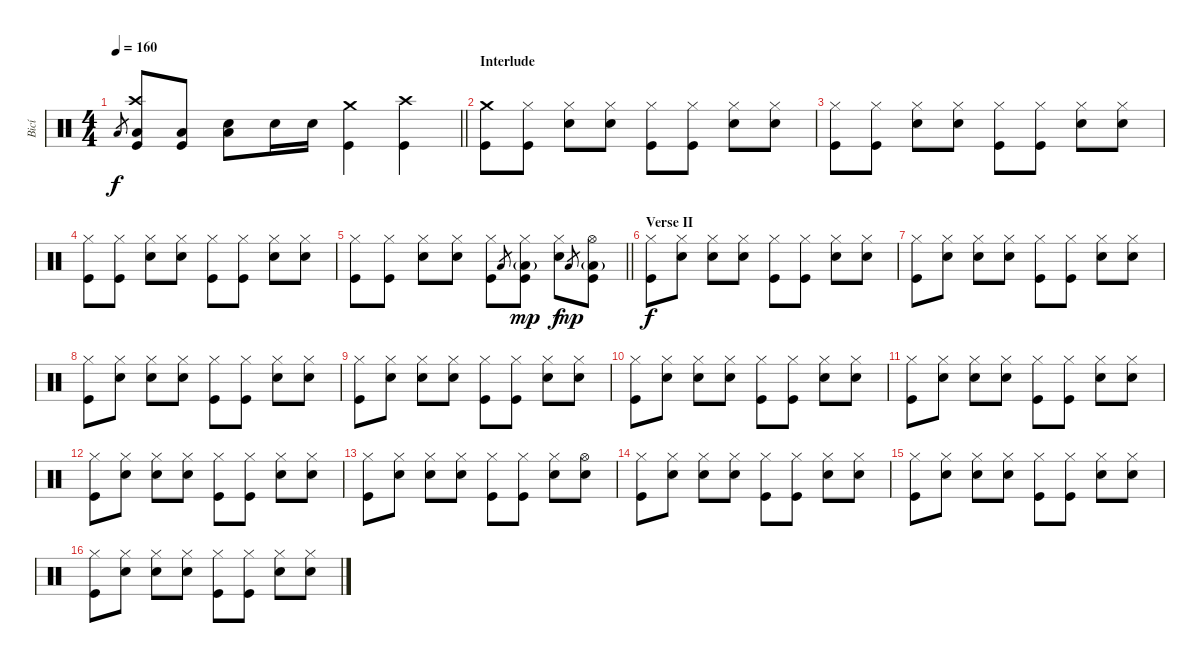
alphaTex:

\track ("Bicí" "Bicí") {instrument percussion}
\staff {score}
\articulation defaults
\ts (4 4)
\tempo 160
\clef neutral
\barLineRight lightlight
\ks c "Low Tom (hit)".8{gr dy f}
("Crash high (hit)" "Low Tom (hit)" "Kick (hit)").8 ("Low Tom (hit)" "Kick (hit)").8 ("Low Tom (hit)" "Electric Snare (hit)").8 "Electric Snare (hit)".16 "Electric Snare (hit)".16 ("Crash medium (hit)" "Kick (hit)").4 ("Crash high (hit)" "Kick (hit)").4 |
\section ("" "Interlude")
("Crash medium (hit)" "Kick (hit)").8 ("Hi-Hat (closed)" "Kick (hit)").8 ("Hi-Hat (closed)" "Electric Snare (hit)").8 ("Hi-Hat (closed)" "Snare (hit)").8 ("Hi-Hat (closed)" "Kick (hit)").8 ("Hi-Hat (closed)" "Kick (hit)").8 ("Hi-Hat (closed)" "Electric Snare (hit)").8 ("Hi-Hat (closed)" "Snare (hit)").8 |
("Hi-Hat (closed)" "Kick (hit)").8 ("Hi-Hat (closed)" "Kick (hit)").8 ("Hi-Hat (closed)" "Electric Snare (hit)").8 ("Hi-Hat (closed)" "Snare (hit)").8 ("Hi-Hat (closed)" "Kick (hit)").8 ("Hi-Hat (closed)" "Kick (hit)").8 ("Hi-Hat (closed)" "Electric Snare (hit)").8 ("Hi-Hat (closed)" "Snare (hit)").8 |
("Hi-Hat (closed)" "Kick (hit)").8 ("Hi-Hat (closed)" "Kick (hit)").8 ("Hi-Hat (closed)" "Electric Snare (hit)").8 ("Hi-Hat (closed)" "Snare (hit)").8 ("Hi-Hat (closed)" "Kick (hit)").8 ("Hi-Hat (closed)" "Kick (hit)").8 ("Hi-Hat (closed)" "Electric Snare (hit)").8 ("Hi-Hat (closed)" "Snare (hit)").8 |
\barLineRight lightlight
("Hi-Hat (closed)" "Kick (hit)").8 ("Hi-Hat (closed)" "Kick (hit)").8 ("Hi-Hat (closed)" "Electric Snare (hit)").8 ("Hi-Hat (closed)" "Snare (hit)").8 ("Hi-Hat (closed)" "Kick (hit)").8 "Low Tom (hit)".8{gr} ("Hi-Hat (closed)" "Low Tom (hit)"{g} "Kick (hit)").8{dy mp} ("Hi-Hat (closed)" "Electric Snare (hit)").8{dy f} "Low Tom (hit)".8{gr dy mp} ("Hi-Hat (open)" "Low Tom (hit)"{g} "Kick (hit)").8 |
\section ("" "Verse II")
("Hi-Hat (closed)" "Kick (hit)").8{dy f} ("Hi-Hat (closed)" "Snare (hit)").8 ("Hi-Hat (closed)" "Electric Snare (hit)").8 ("Hi-Hat (closed)" "Snare (hit)").8 ("Hi-Hat (closed)" "Kick (hit)").8 ("Hi-Hat (closed)" "Kick (hit)").8 ("Hi-Hat (closed)" "Electric Snare (hit)").8 ("Hi-Hat (closed)" "Snare (hit)").8 |
("Hi-Hat (closed)" "Kick (hit)").8 ("Hi-Hat (closed)" "Snare (hit)").8 ("Hi-Hat (closed)" "Electric Snare (hit)").8 ("Hi-Hat (closed)" "Snare (hit)").8 ("Hi-Hat (closed)" "Kick (hit)").8 ("Hi-Hat (closed)" "Kick (hit)").8 ("Hi-Hat (closed)" "Electric Snare (hit)").8 ("Hi-Hat (closed)" "Snare (hit)").8 |
("Hi-Hat (closed)" "Kick (hit)").8 ("Hi-Hat (closed)" "Snare (hit)").8 ("Hi-Hat (closed)" "Electric Snare (hit)").8 ("Hi-Hat (closed)" "Snare (hit)").8 ("Hi-Hat (closed)" "Kick (hit)").8 ("Hi-Hat (closed)" "Kick (hit)").8 ("Hi-Hat (closed)" "Electric Snare (hit)").8 ("Hi-Hat (closed)" "Snare (hit)").8 |
("Hi-Hat (closed)" "Kick (hit)").8 ("Hi-Hat (closed)" "Snare (hit)").8 ("Hi-Hat (closed)" "Electric Snare (hit)").8 ("Hi-Hat (closed)" "Snare (hit)").8 ("Hi-Hat (closed)" "Kick (hit)").8 ("Hi-Hat (closed)" "Kick (hit)").8 ("Hi-Hat (closed)" "Electric Snare (hit)").8 ("Hi-Hat (closed)" "Snare (hit)").8 |
("Hi-Hat (closed)" "Kick (hit)").8 ("Hi-Hat (closed)" "Snare (hit)").8 ("Hi-Hat (closed)" "Electric Snare (hit)").8 ("Hi-Hat (closed)" "Snare (hit)").8 ("Hi-Hat (closed)" "Kick (hit)").8 ("Hi-Hat (closed)" "Kick (hit)").8 ("Hi-Hat (closed)" "Electric Snare (hit)").8 ("Hi-Hat (closed)" "Snare (hit)").8 |
("Hi-Hat (closed)" "Kick (hit)").8 ("Hi-Hat (closed)" "Snare (hit)").8 ("Hi-Hat (closed)" "Electric Snare (hit)").8 ("Hi-Hat (closed)" "Snare (hit)").8 ("Hi-Hat (closed)" "Kick (hit)").8 ("Hi-Hat (closed)" "Kick (hit)").8 ("Hi-Hat (closed)" "Electric Snare (hit)").8 ("Hi-Hat (closed)" "Snare (hit)").8 |
("Hi-Hat (closed)" "Kick (hit)").8 ("Hi-Hat (closed)" "Snare (hit)").8 ("Hi-Hat (closed)" "Electric Snare (hit)").8 ("Hi-Hat (closed)" "Snare (hit)").8 ("Hi-Hat (closed)" "Kick (hit)").8 ("Hi-Hat (closed)" "Kick (hit)").8 ("Hi-Hat (closed)" "Electric Snare (hit)").8 ("Hi-Hat (closed)" "Snare (hit)").8 |
("Hi-Hat (closed)" "Kick (hit)").8 ("Hi-Hat (closed)" "Snare (hit)").8 ("Hi-Hat (closed)" "Electric Snare (hit)").8 ("Hi-Hat (closed)" "Snare (hit)").8 ("Hi-Hat (closed)" "Kick (hit)").8 ("Hi-Hat (closed)" "Kick (hit)").8 ("Hi-Hat (closed)" "Electric Snare (hit)").8 ("Hi-Hat (open)" "Snare (hit)").8 |
("Hi-Hat (closed)" "Kick (hit)").8 ("Hi-Hat (closed)" "Snare (hit)").8 ("Hi-Hat (closed)" "Electric Snare (hit)").8 ("Hi-Hat (closed)" "Snare (hit)").8 ("Hi-Hat (closed)" "Kick (hit)").8 ("Hi-Hat (closed)" "Kick (hit)").8 ("Hi-Hat (closed)" "Electric Snare (hit)").8 ("Hi-Hat (closed)" "Snare (hit)").8 |
("Hi-Hat (closed)" "Kick (hit)").8 ("Hi-Hat (closed)" "Snare (hit)").8 ("Hi-Hat (closed)" "Electric Snare (hit)").8 ("Hi-Hat (closed)" "Snare (hit)").8 ("Hi-Hat (closed)" "Kick (hit)").8 ("Hi-Hat (closed)" "Kick (hit)").8 ("Hi-Hat (closed)" "Electric Snare (hit)").8 ("Hi-Hat (closed)" "Snare (hit)").8 |
("Hi-Hat (closed)" "Kick (hit)").8 ("Hi-Hat (closed)" "Snare (hit)").8 ("Hi-Hat (closed)" "Electric Snare (hit)").8 ("Hi-Hat (closed)" "Snare (hit)").8 ("Hi-Hat (closed)" "Kick (hit)").8 ("Hi-Hat (closed)" "Kick (hit)").8 ("Hi-Hat (closed)" "Electric Snare (hit)").8 ("Hi-Hat (closed)" "Snare (hit)").8
